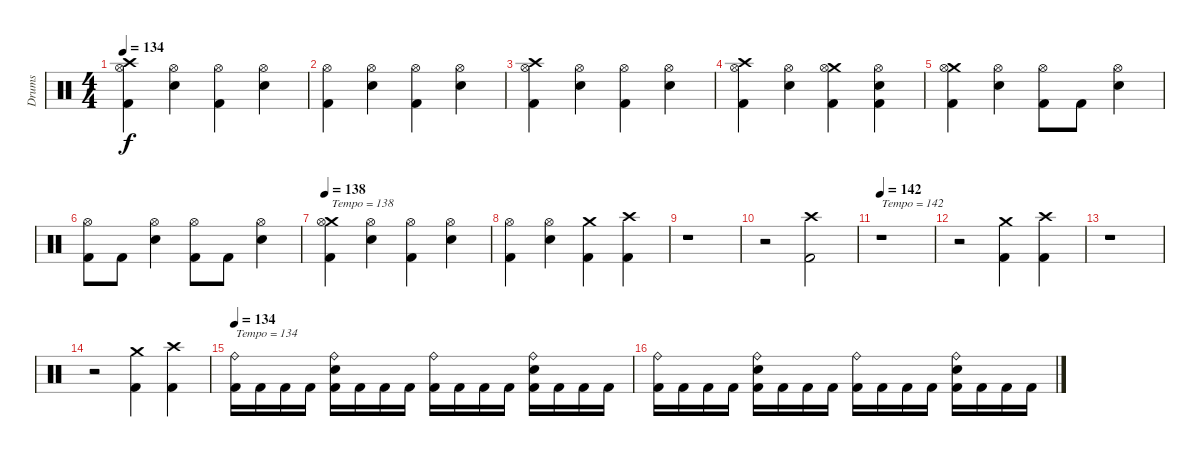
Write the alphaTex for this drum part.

\track ("Drums" "Drums") {instrument percussion}
\staff {score}
\articulation defaults
\ts (4 4)
\tempo 134
\clef neutral
\ks c
("Crash high (hit)" "Hi-Hat (open)" "Kick (hit) 2").4{dy f} ("Hi-Hat (open)" "Electric Snare (hit)").4 ("Hi-Hat (open)" "Kick (hit) 2").4 ("Hi-Hat (open)" "Electric Snare (hit)").4 |
("Hi-Hat (open)" "Kick (hit) 2").4 ("Hi-Hat (open)" "Electric Snare (hit)").4 ("Hi-Hat (open)" "Kick (hit) 2").4 ("Hi-Hat (open)" "Electric Snare (hit)").4 |
("Crash high (hit)" "Hi-Hat (open)" "Kick (hit) 2").4 ("Hi-Hat (open)" "Electric Snare (hit)").4 ("Hi-Hat (open)" "Kick (hit) 2").4 ("Hi-Hat (open)" "Electric Snare (hit)").4 |
("Crash high (hit)" "Hi-Hat (open)" "Kick (hit) 2").4 ("Hi-Hat (open)" "Electric Snare (hit)").4 ("Crash medium (hit)" "Hi-Hat (open)" "Kick (hit) 2").4 ("Hi-Hat (open)" "Electric Snare (hit)" "Kick (hit) 2").4 |
("Crash medium (hit)" "Hi-Hat (open)" "Kick (hit) 2").4 ("Hi-Hat (open)" "Electric Snare (hit)").4 ("Hi-Hat (open)" "Kick (hit) 2").8 "Kick (hit) 2".8 ("Hi-Hat (open)" "Electric Snare (hit)").4 |
("Hi-Hat (open)" "Kick (hit) 2").8 "Kick (hit) 2".8 ("Hi-Hat (open)" "Electric Snare (hit)").4 ("Hi-Hat (open)" "Kick (hit) 2").8 "Kick (hit) 2".8 ("Hi-Hat (open)" "Electric Snare (hit)").4 |
\tempo 138
("Crash medium (hit)" "Hi-Hat (open)" "Kick (hit) 2").4{txt "Tempo = 138"} ("Hi-Hat (open)" "Electric Snare (hit)").4 ("Hi-Hat (open)" "Kick (hit) 2").4 ("Hi-Hat (open)" "Electric Snare (hit)").4 |
("Hi-Hat (open)" "Kick (hit) 2").4 ("Hi-Hat (open)" "Electric Snare (hit)").4 ("Crash medium (hit)" "Kick (hit) 2").4 ("Crash high (hit)" "Kick (hit) 2").4 |
r.1 |
r.2 ("Crash high (hit)" "Kick (hit) 2").2 |
\tempo 142
r.1{txt "Tempo = 142"} |
r.2 ("Crash medium (hit)" "Kick (hit) 2").4 ("Crash high (hit)" "Kick (hit) 2").4 |
r.1 |
r.2 ("Crash medium (hit)" "Kick (hit) 2").4 ("Crash high (hit)" "Kick (hit) 2").4 |
\tempo 134
("Ride (bell)" "Kick (hit) 2").16{txt "Tempo = 134"} "Kick (hit) 2".16 "Kick (hit) 2".16 "Kick (hit) 2".16 ("Ride (bell)" "Electric Snare (hit)" "Kick (hit) 2").16 "Kick (hit) 2".16 "Kick (hit) 2".16 "Kick (hit) 2".16 ("Ride (bell)" "Kick (hit) 2").16 "Kick (hit) 2".16 "Kick (hit) 2".16 "Kick (hit) 2".16 ("Ride (bell)" "Electric Snare (hit)" "Kick (hit) 2").16 "Kick (hit) 2".16 "Kick (hit) 2".16 "Kick (hit) 2".16 |
("Ride (bell)" "Kick (hit) 2").16 "Kick (hit) 2".16 "Kick (hit) 2".16 "Kick (hit) 2".16 ("Ride (bell)" "Electric Snare (hit)" "Kick (hit) 2").16 "Kick (hit) 2".16 "Kick (hit) 2".16 "Kick (hit) 2".16 ("Ride (bell)" "Kick (hit) 2").16 "Kick (hit) 2".16 "Kick (hit) 2".16 "Kick (hit) 2".16 ("Ride (bell)" "Electric Snare (hit)" "Kick (hit) 2").16 "Kick (hit) 2".16 "Kick (hit) 2".16 "Kick (hit) 2".16
